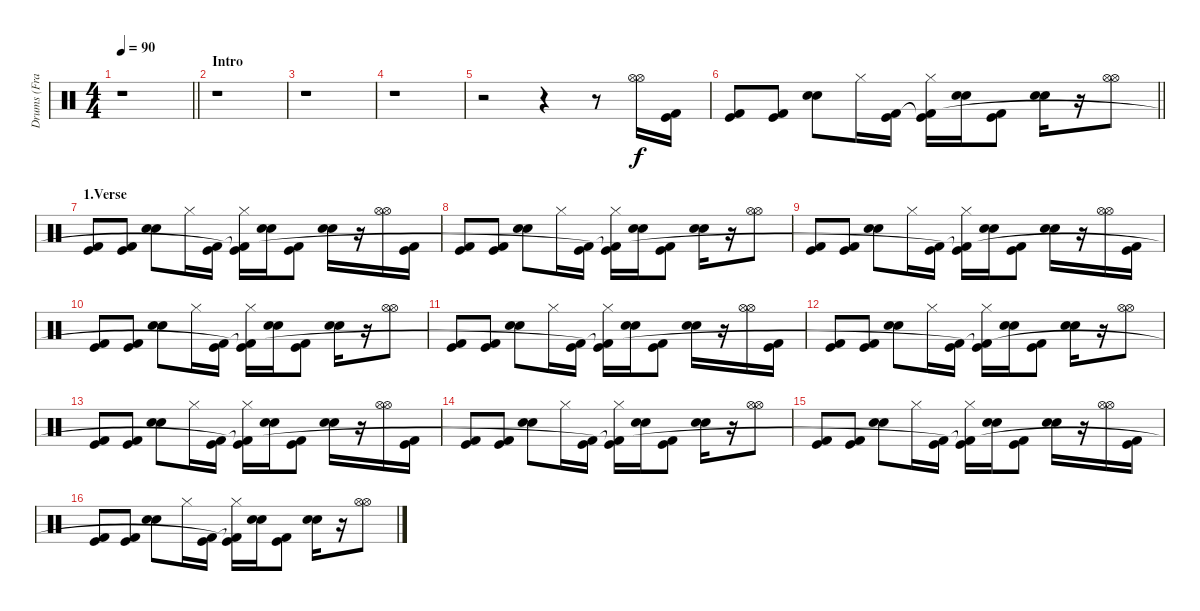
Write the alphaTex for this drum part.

\track ("Drums (Frank Ferrer)" "Drums (Fra") {instrument percussion}
\staff {score}
\articulation defaults
\ts (4 4)
\tempo 90
\clef neutral
\barLineRight lightlight
\ks c
r.1{dy f} |
\section ("" "Intro")
r.1 |
r.1 |
r.1 |
r.2 r.4 r.8 ("Hi-Hat (open)" "Hi-Hat (open)").16{volume 16} ("Kick (hit)" "Kick (hit) 2").16 |
\barLineRight lightlight
("Kick (hit)" "Kick (hit) 2").8{volume 11} ("Kick (hit)" "Kick (hit) 2").8 ("Snare (hit) 2" "Snare (hit) 2").8 "Hi-Hat (closed)".16 ("Kick (hit)" "Kick (hit) 2").16 ("Hi-Hat (closed)" "Kick (hit)"{t} "Kick (hit) 2").16 ("Snare (hit) 2" "Snare (hit) 2").16 ("Kick (hit)" "Kick (hit) 2").8 ("Snare (hit) 2" "Snare (hit) 2").16 r.16 ("Hi-Hat (open)" "Hi-Hat (open)").8 |
\section ("" "1.Verse")
("Kick (hit)" "Kick (hit) 2").8 ("Kick (hit)" "Kick (hit) 2").8 ("Snare (hit) 2" "Snare (hit) 2").8 "Hi-Hat (closed)".16 ("Kick (hit)" "Kick (hit) 2").16 ("Hi-Hat (closed)" "Kick (hit)"{t} "Kick (hit) 2"{t}).16 ("Snare (hit) 2" "Snare (hit) 2").16 ("Kick (hit)" "Kick (hit) 2").8 ("Snare (hit) 2" "Snare (hit) 2").16 r.16 ("Hi-Hat (open)" "Hi-Hat (open)").16 ("Kick (hit)" "Kick (hit) 2").16 |
("Kick (hit)" "Kick (hit) 2").8 ("Kick (hit)" "Kick (hit) 2").8 ("Snare (hit) 2" "Snare (hit) 2").8 "Hi-Hat (closed)".16 ("Kick (hit)" "Kick (hit) 2").16 ("Hi-Hat (closed)" "Kick (hit)"{t} "Kick (hit) 2"{t}).16 ("Snare (hit) 2" "Snare (hit) 2").16 ("Kick (hit)" "Kick (hit) 2").8 ("Snare (hit) 2" "Snare (hit) 2").16 r.16 ("Hi-Hat (open)" "Hi-Hat (open)").8 |
("Kick (hit)" "Kick (hit) 2").8 ("Kick (hit)" "Kick (hit) 2").8 ("Snare (hit) 2" "Snare (hit) 2").8 "Hi-Hat (closed)".16 ("Kick (hit)" "Kick (hit) 2").16 ("Hi-Hat (closed)" "Kick (hit)"{t} "Kick (hit) 2"{t}).16 ("Snare (hit) 2" "Snare (hit) 2").16 ("Kick (hit)" "Kick (hit) 2").8 ("Snare (hit) 2" "Snare (hit) 2").16 r.16 ("Hi-Hat (open)" "Hi-Hat (open)").16 ("Kick (hit)" "Kick (hit) 2").16 |
("Kick (hit)" "Kick (hit) 2").8 ("Kick (hit)" "Kick (hit) 2").8 ("Snare (hit) 2" "Snare (hit) 2").8 "Hi-Hat (closed)".16 ("Kick (hit)" "Kick (hit) 2").16 ("Hi-Hat (closed)" "Kick (hit)"{t} "Kick (hit) 2"{t}).16 ("Snare (hit) 2" "Snare (hit) 2").16 ("Kick (hit)" "Kick (hit) 2").8 ("Snare (hit) 2" "Snare (hit) 2").16 r.16 ("Hi-Hat (open)" "Hi-Hat (open)").8 |
("Kick (hit)" "Kick (hit) 2").8 ("Kick (hit)" "Kick (hit) 2").8 ("Snare (hit) 2" "Snare (hit) 2").8 "Hi-Hat (closed)".16 ("Kick (hit)" "Kick (hit) 2").16 ("Hi-Hat (closed)" "Kick (hit)"{t} "Kick (hit) 2"{t}).16 ("Snare (hit) 2" "Snare (hit) 2").16 ("Kick (hit)" "Kick (hit) 2").8 ("Snare (hit) 2" "Snare (hit) 2").16 r.16 ("Hi-Hat (open)" "Hi-Hat (open)").16 ("Kick (hit)" "Kick (hit) 2").16 |
("Kick (hit)" "Kick (hit) 2").8 ("Kick (hit)" "Kick (hit) 2").8 ("Snare (hit) 2" "Snare (hit) 2").8 "Hi-Hat (closed)".16 ("Kick (hit)" "Kick (hit) 2").16 ("Hi-Hat (closed)" "Kick (hit)"{t} "Kick (hit) 2"{t}).16 ("Snare (hit) 2" "Snare (hit) 2").16 ("Kick (hit)" "Kick (hit) 2").8 ("Snare (hit) 2" "Snare (hit) 2").16 r.16 ("Hi-Hat (open)" "Hi-Hat (open)").8 |
("Kick (hit)" "Kick (hit) 2").8 ("Kick (hit)" "Kick (hit) 2").8 ("Snare (hit) 2" "Snare (hit) 2").8 "Hi-Hat (closed)".16 ("Kick (hit)" "Kick (hit) 2").16 ("Hi-Hat (closed)" "Kick (hit)"{t} "Kick (hit) 2"{t}).16 ("Snare (hit) 2" "Snare (hit) 2").16 ("Kick (hit)" "Kick (hit) 2").8 ("Snare (hit) 2" "Snare (hit) 2").16 r.16 ("Hi-Hat (open)" "Hi-Hat (open)").16 ("Kick (hit)" "Kick (hit) 2").16 |
("Kick (hit)" "Kick (hit) 2").8 ("Kick (hit)" "Kick (hit) 2").8 ("Snare (hit) 2" "Snare (hit) 2").8 "Hi-Hat (closed)".16 ("Kick (hit)" "Kick (hit) 2").16 ("Hi-Hat (closed)" "Kick (hit)"{t} "Kick (hit) 2"{t}).16 ("Snare (hit) 2" "Snare (hit) 2").16 ("Kick (hit)" "Kick (hit) 2").8 ("Snare (hit) 2" "Snare (hit) 2").16 r.16 ("Hi-Hat (open)" "Hi-Hat (open)").8 |
("Kick (hit)" "Kick (hit) 2").8 ("Kick (hit)" "Kick (hit) 2").8 ("Snare (hit) 2" "Snare (hit) 2").8 "Hi-Hat (closed)".16 ("Kick (hit)" "Kick (hit) 2").16 ("Hi-Hat (closed)" "Kick (hit)"{t} "Kick (hit) 2"{t}).16 ("Snare (hit) 2" "Snare (hit) 2").16 ("Kick (hit)" "Kick (hit) 2").8 ("Snare (hit) 2" "Snare (hit) 2").16 r.16 ("Hi-Hat (open)" "Hi-Hat (open)").16 ("Kick (hit)" "Kick (hit) 2").16 |
("Kick (hit)" "Kick (hit) 2").8 ("Kick (hit)" "Kick (hit) 2").8 ("Snare (hit) 2" "Snare (hit) 2").8 "Hi-Hat (closed)".16 ("Kick (hit)" "Kick (hit) 2").16 ("Hi-Hat (closed)" "Kick (hit)"{t} "Kick (hit) 2"{t}).16 ("Snare (hit) 2" "Snare (hit) 2").16 ("Kick (hit)" "Kick (hit) 2").8 ("Snare (hit) 2" "Snare (hit) 2").16 r.16 ("Hi-Hat (open)" "Hi-Hat (open)").8
